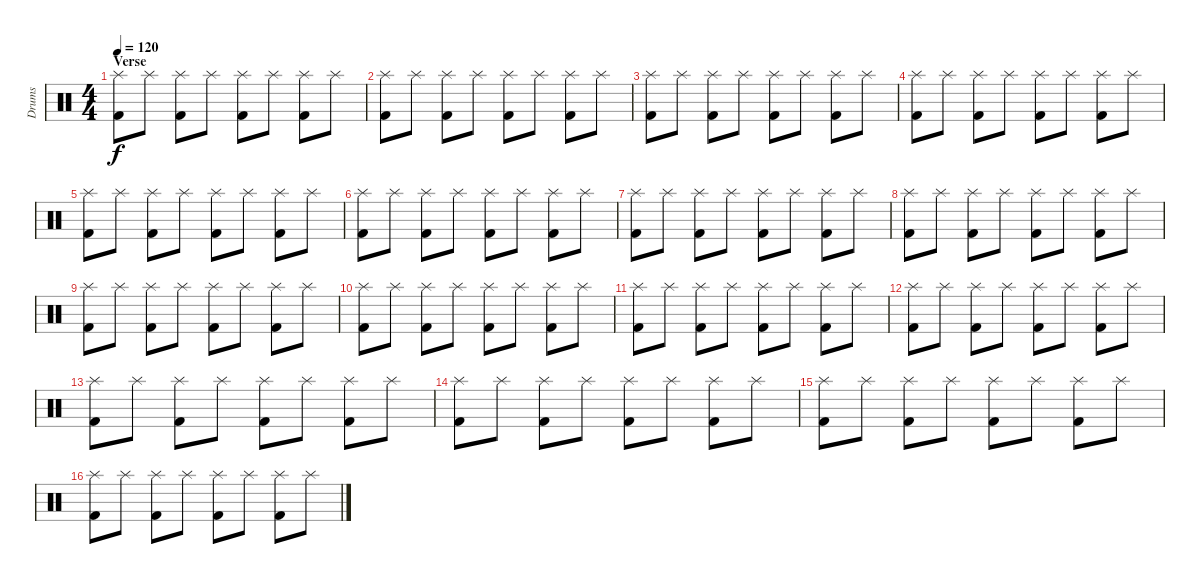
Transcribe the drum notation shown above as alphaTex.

\track ("Drums" "Drums") {instrument percussion}
\staff {score}
\articulation defaults
\ts (4 4)
\section ("" "Verse")
\tempo 120
\clef neutral
\ks c
("Splash (hit)" "Kick (hit) 2").8{dy f} "Splash (hit)".8 ("Splash (hit)" "Kick (hit) 2").8 "Splash (hit)".8 ("Splash (hit)" "Kick (hit) 2").8 "Splash (hit)".8 ("Splash (hit)" "Kick (hit) 2").8 "Splash (hit)".8 |
("Splash (hit)" "Kick (hit) 2").8 "Splash (hit)".8 ("Splash (hit)" "Kick (hit) 2").8 "Splash (hit)".8 ("Splash (hit)" "Kick (hit) 2").8 "Splash (hit)".8 ("Splash (hit)" "Kick (hit) 2").8 "Splash (hit)".8 |
("Splash (hit)" "Kick (hit) 2").8 "Splash (hit)".8 ("Splash (hit)" "Kick (hit) 2").8 "Splash (hit)".8 ("Splash (hit)" "Kick (hit) 2").8 "Splash (hit)".8 ("Splash (hit)" "Kick (hit) 2").8 "Splash (hit)".8 |
("Splash (hit)" "Kick (hit) 2").8 "Splash (hit)".8 ("Splash (hit)" "Kick (hit) 2").8 "Splash (hit)".8 ("Splash (hit)" "Kick (hit) 2").8 "Splash (hit)".8 ("Splash (hit)" "Kick (hit) 2").8 "Splash (hit)".8 |
("Splash (hit)" "Kick (hit) 2").8 "Splash (hit)".8 ("Splash (hit)" "Kick (hit) 2").8 "Splash (hit)".8 ("Splash (hit)" "Kick (hit) 2").8 "Splash (hit)".8 ("Splash (hit)" "Kick (hit) 2").8 "Splash (hit)".8 |
("Splash (hit)" "Kick (hit) 2").8 "Splash (hit)".8 ("Splash (hit)" "Kick (hit) 2").8 "Splash (hit)".8 ("Splash (hit)" "Kick (hit) 2").8 "Splash (hit)".8 ("Splash (hit)" "Kick (hit) 2").8 "Splash (hit)".8 |
("Splash (hit)" "Kick (hit) 2").8 "Splash (hit)".8 ("Splash (hit)" "Kick (hit) 2").8 "Splash (hit)".8 ("Splash (hit)" "Kick (hit) 2").8 "Splash (hit)".8 ("Splash (hit)" "Kick (hit) 2").8 "Splash (hit)".8 |
("Splash (hit)" "Kick (hit) 2").8 "Splash (hit)".8 ("Splash (hit)" "Kick (hit) 2").8 "Splash (hit)".8 ("Splash (hit)" "Kick (hit) 2").8 "Splash (hit)".8 ("Splash (hit)" "Kick (hit) 2").8 "Splash (hit)".8 |
("Splash (hit)" "Kick (hit) 2").8 "Splash (hit)".8 ("Splash (hit)" "Kick (hit) 2").8 "Splash (hit)".8 ("Splash (hit)" "Kick (hit) 2").8 "Splash (hit)".8 ("Splash (hit)" "Kick (hit) 2").8 "Splash (hit)".8 |
("Splash (hit)" "Kick (hit) 2").8 "Splash (hit)".8 ("Splash (hit)" "Kick (hit) 2").8 "Splash (hit)".8 ("Splash (hit)" "Kick (hit) 2").8 "Splash (hit)".8 ("Splash (hit)" "Kick (hit) 2").8 "Splash (hit)".8 |
("Splash (hit)" "Kick (hit) 2").8 "Splash (hit)".8 ("Splash (hit)" "Kick (hit) 2").8 "Splash (hit)".8 ("Splash (hit)" "Kick (hit) 2").8 "Splash (hit)".8 ("Splash (hit)" "Kick (hit) 2").8 "Splash (hit)".8 |
("Splash (hit)" "Kick (hit) 2").8 "Splash (hit)".8 ("Splash (hit)" "Kick (hit) 2").8 "Splash (hit)".8 ("Splash (hit)" "Kick (hit) 2").8 "Splash (hit)".8 ("Splash (hit)" "Kick (hit) 2").8 "Splash (hit)".8 |
("Splash (hit)" "Kick (hit) 2").8 "Splash (hit)".8 ("Splash (hit)" "Kick (hit) 2").8 "Splash (hit)".8 ("Splash (hit)" "Kick (hit) 2").8 "Splash (hit)".8 ("Splash (hit)" "Kick (hit) 2").8 "Splash (hit)".8 |
("Splash (hit)" "Kick (hit) 2").8 "Splash (hit)".8 ("Splash (hit)" "Kick (hit) 2").8 "Splash (hit)".8 ("Splash (hit)" "Kick (hit) 2").8 "Splash (hit)".8 ("Splash (hit)" "Kick (hit) 2").8 "Splash (hit)".8 |
("Splash (hit)" "Kick (hit) 2").8 "Splash (hit)".8 ("Splash (hit)" "Kick (hit) 2").8 "Splash (hit)".8 ("Splash (hit)" "Kick (hit) 2").8 "Splash (hit)".8 ("Splash (hit)" "Kick (hit) 2").8 "Splash (hit)".8 |
("Splash (hit)" "Kick (hit) 2").8 "Splash (hit)".8 ("Splash (hit)" "Kick (hit) 2").8 "Splash (hit)".8 ("Splash (hit)" "Kick (hit) 2").8 "Splash (hit)".8 ("Splash (hit)" "Kick (hit) 2").8 "Splash (hit)".8
